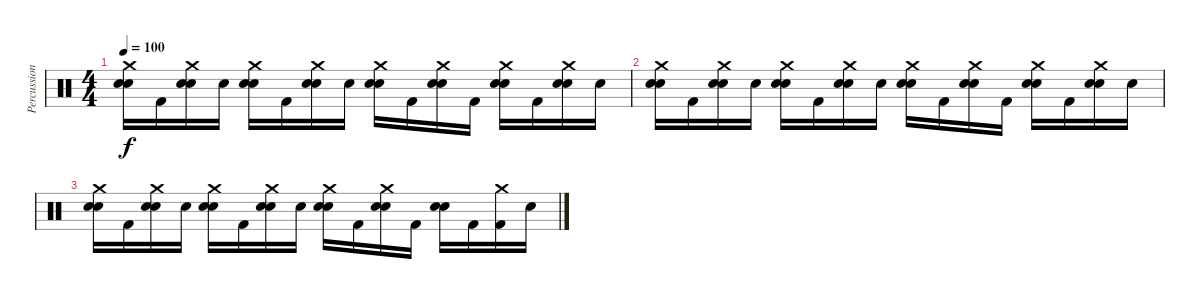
\track ("Percussion" "Percussion") {instrument percussion}
\staff {score}
\articulation defaults
\ts (4 4)
\tempo 100
\clef neutral
\ks c
("Crash medium (hit)" "Electric Snare (hit)" "Snare (hit)").16{dy f} "Kick (hit) 2".16 ("Crash medium (hit)" "Electric Snare (hit)" "Snare (hit)").16 "Snare (hit)".16 ("Crash medium (hit)" "Electric Snare (hit)" "Snare (hit)").16 "Kick (hit) 2".16 ("Crash medium (hit)" "Electric Snare (hit)" "Snare (hit)").16 "Snare (hit)".16 ("Crash medium (hit)" "Electric Snare (hit)" "Snare (hit)").16 "Kick (hit) 2".16 ("Crash medium (hit)" "Electric Snare (hit)" "Snare (hit)").16 "Kick (hit) 2".16 ("Crash medium (hit)" "Electric Snare (hit)" "Snare (hit)").16 "Kick (hit) 2".16 ("Crash medium (hit)" "Electric Snare (hit)" "Snare (hit)").16 "Snare (hit)".16 |
("Crash medium (hit)" "Electric Snare (hit)" "Snare (hit)").16 "Kick (hit) 2".16 ("Crash medium (hit)" "Electric Snare (hit)" "Snare (hit)").16 "Snare (hit)".16 ("Crash medium (hit)" "Electric Snare (hit)" "Snare (hit)").16 "Kick (hit) 2".16 ("Crash medium (hit)" "Electric Snare (hit)" "Snare (hit)").16 "Snare (hit)".16 ("Crash medium (hit)" "Electric Snare (hit)" "Snare (hit)").16 "Kick (hit) 2".16 ("Crash medium (hit)" "Electric Snare (hit)" "Snare (hit)").16 "Kick (hit) 2".16 ("Crash medium (hit)" "Electric Snare (hit)" "Snare (hit)").16 "Kick (hit) 2".16 ("Crash medium (hit)" "Electric Snare (hit)" "Snare (hit)").16 "Snare (hit)".16 |
("Crash medium (hit)" "Electric Snare (hit)" "Snare (hit)").16 "Kick (hit) 2".16 ("Crash medium (hit)" "Electric Snare (hit)" "Snare (hit)").16 "Snare (hit)".16 ("Crash medium (hit)" "Electric Snare (hit)" "Snare (hit)").16 "Kick (hit) 2".16 ("Crash medium (hit)" "Electric Snare (hit)" "Snare (hit)").16 "Snare (hit)".16 ("Crash medium (hit)" "Electric Snare (hit)" "Snare (hit)").16 "Kick (hit) 2".16 ("Crash medium (hit)" "Electric Snare (hit)" "Snare (hit)").16 "Kick (hit) 2".16 ("Electric Snare (hit)" "Snare (hit)").16 "Kick (hit) 2".16 ("Crash medium (hit)" "Kick (hit) 2").16 "Snare (hit)".16
